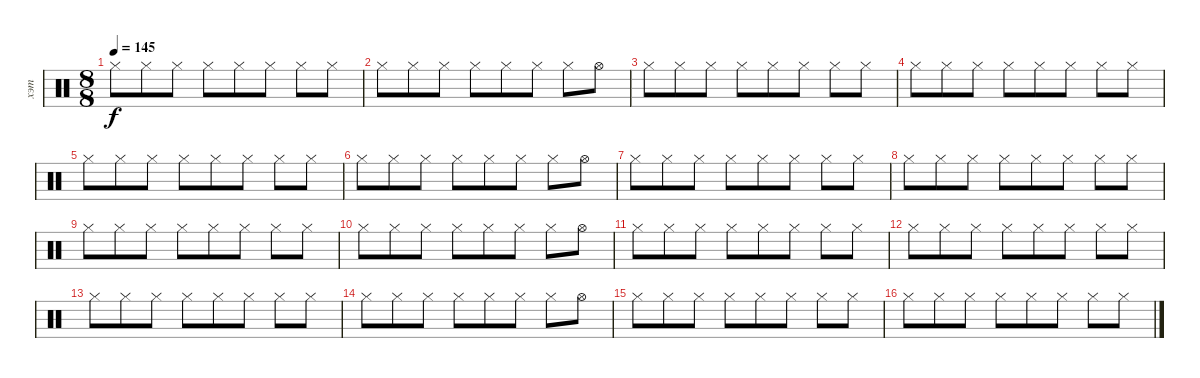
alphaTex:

\track ("хэт" "хэт") {instrument percussion}
\staff {score}
\articulation defaults
\ts (8 8)
\tempo 145
\clef neutral
\ks c "Hi-Hat (closed)".8{dy f} "Hi-Hat (closed)".8 "Hi-Hat (closed)".8 "Hi-Hat (closed)".8 "Hi-Hat (closed)".8 "Hi-Hat (closed)".8 "Hi-Hat (closed)".8 "Hi-Hat (closed)".8
|
"Hi-Hat (closed)".8 "Hi-Hat (closed)".8 "Hi-Hat (closed)".8 "Hi-Hat (closed)".8 "Hi-Hat (closed)".8 "Hi-Hat (closed)".8 "Hi-Hat (closed)".8 "Hi-Hat (open)".8 |
"Hi-Hat (closed)".8 "Hi-Hat (closed)".8 "Hi-Hat (closed)".8 "Hi-Hat (closed)".8 "Hi-Hat (closed)".8 "Hi-Hat (closed)".8 "Hi-Hat (closed)".8 "Hi-Hat (closed)".8 |
"Hi-Hat (closed)".8 "Hi-Hat (closed)".8 "Hi-Hat (closed)".8 "Hi-Hat (closed)".8 "Hi-Hat (closed)".8 "Hi-Hat (closed)".8 "Hi-Hat (closed)".8 "Hi-Hat (closed)".8 |
"Hi-Hat (closed)".8 "Hi-Hat (closed)".8 "Hi-Hat (closed)".8 "Hi-Hat (closed)".8 "Hi-Hat (closed)".8 "Hi-Hat (closed)".8 "Hi-Hat (closed)".8 "Hi-Hat (closed)".8 |
"Hi-Hat (closed)".8 "Hi-Hat (closed)".8 "Hi-Hat (closed)".8 "Hi-Hat (closed)".8 "Hi-Hat (closed)".8 "Hi-Hat (closed)".8 "Hi-Hat (closed)".8 "Hi-Hat (open)".8 |
"Hi-Hat (closed)".8 "Hi-Hat (closed)".8 "Hi-Hat (closed)".8 "Hi-Hat (closed)".8 "Hi-Hat (closed)".8 "Hi-Hat (closed)".8 "Hi-Hat (closed)".8 "Hi-Hat (closed)".8 |
"Hi-Hat (closed)".8 "Hi-Hat (closed)".8 "Hi-Hat (closed)".8 "Hi-Hat (closed)".8 "Hi-Hat (closed)".8 "Hi-Hat (closed)".8 "Hi-Hat (closed)".8 "Hi-Hat (closed)".8 |
"Hi-Hat (closed)".8 "Hi-Hat (closed)".8 "Hi-Hat (closed)".8 "Hi-Hat (closed)".8 "Hi-Hat (closed)".8 "Hi-Hat (closed)".8 "Hi-Hat (closed)".8 "Hi-Hat (closed)".8 |
"Hi-Hat (closed)".8 "Hi-Hat (closed)".8 "Hi-Hat (closed)".8 "Hi-Hat (closed)".8 "Hi-Hat (closed)".8 "Hi-Hat (closed)".8 "Hi-Hat (closed)".8 "Hi-Hat (open)".8 |
"Hi-Hat (closed)".8 "Hi-Hat (closed)".8 "Hi-Hat (closed)".8 "Hi-Hat (closed)".8 "Hi-Hat (closed)".8 "Hi-Hat (closed)".8 "Hi-Hat (closed)".8 "Hi-Hat (closed)".8 |
"Hi-Hat (closed)".8 "Hi-Hat (closed)".8 "Hi-Hat (closed)".8 "Hi-Hat (closed)".8 "Hi-Hat (closed)".8 "Hi-Hat (closed)".8 "Hi-Hat (closed)".8 "Hi-Hat (closed)".8 |
"Hi-Hat (closed)".8 "Hi-Hat (closed)".8 "Hi-Hat (closed)".8 "Hi-Hat (closed)".8 "Hi-Hat (closed)".8 "Hi-Hat (closed)".8 "Hi-Hat (closed)".8 "Hi-Hat (closed)".8 |
"Hi-Hat (closed)".8 "Hi-Hat (closed)".8 "Hi-Hat (closed)".8 "Hi-Hat (closed)".8 "Hi-Hat (closed)".8 "Hi-Hat (closed)".8 "Hi-Hat (closed)".8 "Hi-Hat (open)".8 |
"Hi-Hat (closed)".8 "Hi-Hat (closed)".8 "Hi-Hat (closed)".8 "Hi-Hat (closed)".8 "Hi-Hat (closed)".8 "Hi-Hat (closed)".8 "Hi-Hat (closed)".8 "Hi-Hat (closed)".8 |
"Hi-Hat (closed)".8 "Hi-Hat (closed)".8 "Hi-Hat (closed)".8 "Hi-Hat (closed)".8 "Hi-Hat (closed)".8 "Hi-Hat (closed)".8 "Hi-Hat (closed)".8 "Hi-Hat (closed)".8
